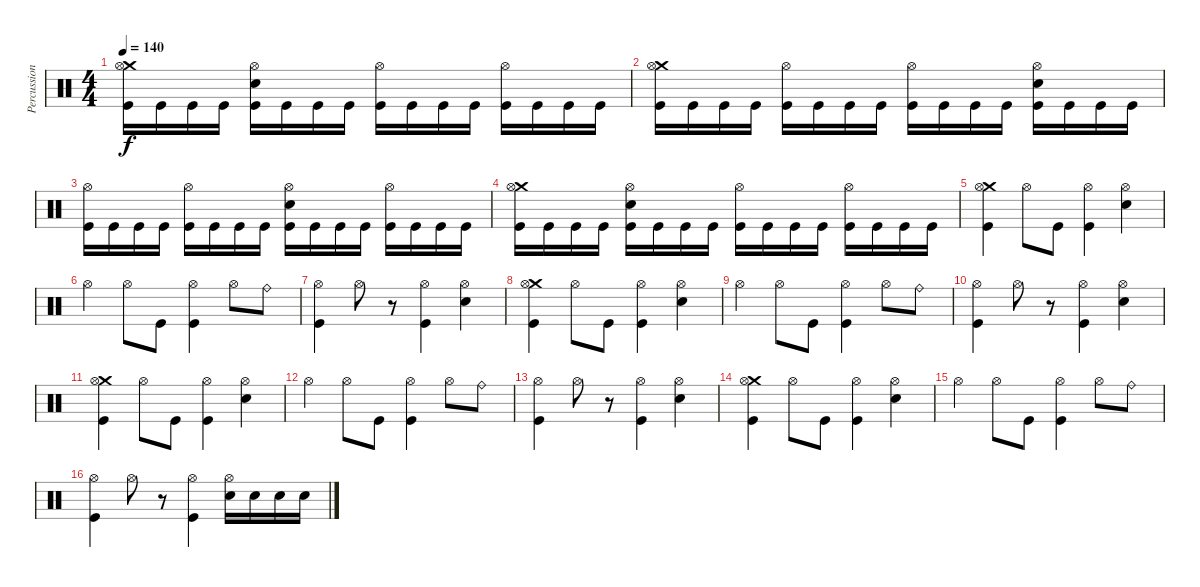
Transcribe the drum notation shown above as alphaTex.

\track ("Percussion" "Percussion") {instrument percussion}
\staff {score}
\articulation defaults
\ts (4 4)
\tempo 140
\clef neutral
\ks c
("Crash medium (hit)" "Hi-Hat (open)" "Kick (hit)").16{dy f} "Kick (hit)".16 "Kick (hit)".16 "Kick (hit)".16 ("Electric Snare (hit)" "Hi-Hat (open)" "Kick (hit)").16 "Kick (hit)".16 "Kick (hit)".16 "Kick (hit)".16 ("Hi-Hat (open)" "Kick (hit)").16 "Kick (hit)".16 "Kick (hit)".16 "Kick (hit)".16 ("Hi-Hat (open)" "Kick (hit)").16 "Kick (hit)".16 "Kick (hit)".16 "Kick (hit)".16 |
("Crash medium (hit)" "Hi-Hat (open)" "Kick (hit)").16 "Kick (hit)".16 "Kick (hit)".16 "Kick (hit)".16 ("Hi-Hat (open)" "Kick (hit)").16 "Kick (hit)".16 "Kick (hit)".16 "Kick (hit)".16 ("Hi-Hat (open)" "Kick (hit)").16 "Kick (hit)".16 "Kick (hit)".16 "Kick (hit)".16 ("Electric Snare (hit)" "Hi-Hat (open)" "Kick (hit)").16 "Kick (hit)".16 "Kick (hit)".16 "Kick (hit)".16 |
("Hi-Hat (open)" "Kick (hit)").16 "Kick (hit)".16 "Kick (hit)".16 "Kick (hit)".16 ("Hi-Hat (open)" "Kick (hit)").16 "Kick (hit)".16 "Kick (hit)".16 "Kick (hit)".16 ("Electric Snare (hit)" "Hi-Hat (open)" "Kick (hit)").16 "Kick (hit)".16 "Kick (hit)".16 "Kick (hit)".16 ("Hi-Hat (open)" "Kick (hit)").16 "Kick (hit)".16 "Kick (hit)".16 "Kick (hit)".16 |
("Crash medium (hit)" "Hi-Hat (open)" "Kick (hit)").16 "Kick (hit)".16 "Kick (hit)".16 "Kick (hit)".16 ("Electric Snare (hit)" "Hi-Hat (open)" "Kick (hit)").16 "Kick (hit)".16 "Kick (hit)".16 "Kick (hit)".16 ("Hi-Hat (open)" "Kick (hit)").16 "Kick (hit)".16 "Kick (hit)".16 "Kick (hit)".16 ("Hi-Hat (open)" "Kick (hit)").16 "Kick (hit)".16 "Kick (hit)".16 "Kick (hit)".16 |
("Crash medium (hit)" "Hi-Hat (open)" "Kick (hit)").4 "Hi-Hat (open)".8 "Kick (hit)".8 ("Hi-Hat (open)" "Kick (hit)").4 ("Hi-Hat (open)" "Electric Snare (hit)").4 |
"Hi-Hat (open)".4 "Hi-Hat (open)".8 "Kick (hit)".8 ("Hi-Hat (open)" "Kick (hit)").4 "Hi-Hat (open)".8 "Ride (bell)".8 |
("Hi-Hat (open)" "Kick (hit)").4 "Hi-Hat (open)".8 r.8 ("Hi-Hat (open)" "Kick (hit)").4 ("Hi-Hat (open)" "Electric Snare (hit)").4 |
("Crash medium (hit)" "Hi-Hat (open)" "Kick (hit)").4 "Hi-Hat (open)".8 "Kick (hit)".8 ("Hi-Hat (open)" "Kick (hit)").4 ("Hi-Hat (open)" "Electric Snare (hit)").4 |
"Hi-Hat (open)".4 "Hi-Hat (open)".8 "Kick (hit)".8 ("Hi-Hat (open)" "Kick (hit)").4 "Hi-Hat (open)".8 "Ride (bell)".8 |
("Hi-Hat (open)" "Kick (hit)").4 "Hi-Hat (open)".8 r.8 ("Hi-Hat (open)" "Kick (hit)").4 ("Hi-Hat (open)" "Electric Snare (hit)").4 |
("Crash medium (hit)" "Hi-Hat (open)" "Kick (hit)").4 "Hi-Hat (open)".8 "Kick (hit)".8 ("Hi-Hat (open)" "Kick (hit)").4 ("Hi-Hat (open)" "Electric Snare (hit)").4 |
"Hi-Hat (open)".4 "Hi-Hat (open)".8 "Kick (hit)".8 ("Hi-Hat (open)" "Kick (hit)").4 "Hi-Hat (open)".8 "Ride (bell)".8 |
("Hi-Hat (open)" "Kick (hit)").4 "Hi-Hat (open)".8 r.8 ("Hi-Hat (open)" "Kick (hit)").4 ("Hi-Hat (open)" "Electric Snare (hit)").4 |
("Crash medium (hit)" "Hi-Hat (open)" "Kick (hit)").4 "Hi-Hat (open)".8 "Kick (hit)".8 ("Hi-Hat (open)" "Kick (hit)").4 ("Hi-Hat (open)" "Electric Snare (hit)").4 |
"Hi-Hat (open)".4 "Hi-Hat (open)".8 "Kick (hit)".8 ("Hi-Hat (open)" "Kick (hit)").4 "Hi-Hat (open)".8 "Ride (bell)".8 |
("Hi-Hat (open)" "Kick (hit)").4 "Hi-Hat (open)".8 r.8 ("Hi-Hat (open)" "Kick (hit)").4 ("Hi-Hat (open)" "Electric Snare (hit)").16 "Electric Snare (hit)".16 "Electric Snare (hit)".16 "Electric Snare (hit)".16
